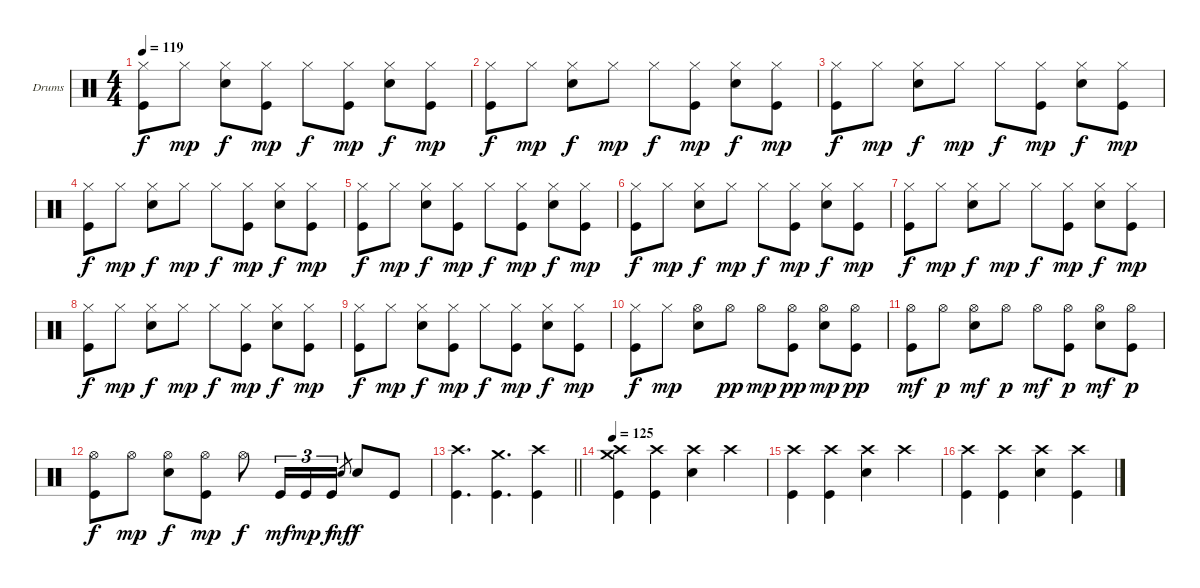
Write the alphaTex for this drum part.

\bracketExtendMode groupsimilarinstruments
\firstSystemTrackNameOrientation horizontal
\otherSystemsTrackNameOrientation horizontal
\track ("Drumkit" "Drums") {instrument percussion}
\staff {score}
\articulation defaults
\ts (4 4)
\tempo 119
\clef neutral
\ks c
("Hi-Hat (closed)" "Kick (hit)").8{dy f} "Hi-Hat (closed)".8{dy mp} ("Hi-Hat (closed)" "Snare (hit) 2").8{dy f} ("Hi-Hat (closed)" "Kick (hit)").8{dy mp} "Hi-Hat (closed)".8{dy f} ("Hi-Hat (closed)" "Kick (hit)").8{dy mp} ("Hi-Hat (closed)" "Snare (hit) 2").8{dy f} ("Hi-Hat (closed)" "Kick (hit)").8{dy mp} |
("Hi-Hat (closed)" "Kick (hit)").8{dy f} "Hi-Hat (closed)".8{dy mp} ("Hi-Hat (closed)" "Snare (hit) 2").8{dy f} "Hi-Hat (closed)".8{dy mp} "Hi-Hat (closed)".8{dy f} ("Hi-Hat (closed)" "Kick (hit)").8{dy mp} ("Hi-Hat (closed)" "Snare (hit) 2").8{dy f} ("Hi-Hat (closed)" "Kick (hit)").8{dy mp} |
("Hi-Hat (closed)" "Kick (hit)").8{dy f} "Hi-Hat (closed)".8{dy mp} ("Hi-Hat (closed)" "Snare (hit) 2").8{dy f} "Hi-Hat (closed)".8{dy mp} "Hi-Hat (closed)".8{dy f} ("Hi-Hat (closed)" "Kick (hit)").8{dy mp} ("Hi-Hat (closed)" "Snare (hit) 2").8{dy f} ("Hi-Hat (closed)" "Kick (hit)").8{dy mp} |
("Hi-Hat (closed)" "Kick (hit)").8{dy f} "Hi-Hat (closed)".8{dy mp} ("Hi-Hat (closed)" "Snare (hit) 2").8{dy f} "Hi-Hat (closed)".8{dy mp} "Hi-Hat (closed)".8{dy f} ("Hi-Hat (closed)" "Kick (hit)").8{dy mp} ("Hi-Hat (closed)" "Snare (hit) 2").8{dy f} ("Hi-Hat (closed)" "Kick (hit)").8{dy mp} |
("Hi-Hat (closed)" "Kick (hit)").8{dy f} "Hi-Hat (closed)".8{dy mp} ("Hi-Hat (closed)" "Snare (hit) 2").8{dy f} ("Hi-Hat (closed)" "Kick (hit)").8{dy mp} "Hi-Hat (closed)".8{dy f} ("Hi-Hat (closed)" "Kick (hit)").8{dy mp} ("Hi-Hat (closed)" "Snare (hit) 2").8{dy f} ("Hi-Hat (closed)" "Kick (hit)").8{dy mp} |
("Hi-Hat (closed)" "Kick (hit)").8{dy f} "Hi-Hat (closed)".8{dy mp} ("Hi-Hat (closed)" "Snare (hit) 2").8{dy f} "Hi-Hat (closed)".8{dy mp} "Hi-Hat (closed)".8{dy f} ("Hi-Hat (closed)" "Kick (hit)").8{dy mp} ("Hi-Hat (closed)" "Snare (hit) 2").8{dy f} ("Hi-Hat (closed)" "Kick (hit)").8{dy mp} |
("Hi-Hat (closed)" "Kick (hit)").8{dy f} "Hi-Hat (closed)".8{dy mp} ("Hi-Hat (closed)" "Snare (hit) 2").8{dy f} "Hi-Hat (closed)".8{dy mp} "Hi-Hat (closed)".8{dy f} ("Hi-Hat (closed)" "Kick (hit)").8{dy mp} ("Hi-Hat (closed)" "Snare (hit) 2").8{dy f} ("Hi-Hat (closed)" "Kick (hit)").8{dy mp} |
("Hi-Hat (closed)" "Kick (hit)").8{dy f} "Hi-Hat (closed)".8{dy mp} ("Hi-Hat (closed)" "Snare (hit) 2").8{dy f} "Hi-Hat (closed)".8{dy mp} "Hi-Hat (closed)".8{dy f} ("Hi-Hat (closed)" "Kick (hit)").8{dy mp} ("Hi-Hat (closed)" "Snare (hit) 2").8{dy f} ("Hi-Hat (closed)" "Kick (hit)").8{dy mp} |
("Hi-Hat (closed)" "Kick (hit)").8{dy f} "Hi-Hat (closed)".8{dy mp} ("Hi-Hat (closed)" "Snare (hit) 2").8{dy f} ("Hi-Hat (closed)" "Kick (hit)").8{dy mp} "Hi-Hat (closed)".8{dy f} ("Hi-Hat (closed)" "Kick (hit)").8{dy mp} ("Hi-Hat (closed)" "Snare (hit) 2").8{dy f} ("Hi-Hat (closed)" "Kick (hit)").8{dy mp} |
("Hi-Hat (closed)" "Kick (hit)").8{dy f} "Hi-Hat (closed)".8{dy mp} ("Hi-Hat (open)" "Snare (hit) 2").8 "Hi-Hat (open)".8{dy pp} "Hi-Hat (open)".8{dy mp} ("Hi-Hat (open)" "Kick (hit)").8{dy pp} ("Hi-Hat (open)" "Snare (hit) 2").8{dy mp} ("Hi-Hat (open)" "Kick (hit)").8{dy pp} |
("Hi-Hat (open)" "Kick (hit)").8{dy mf} "Hi-Hat (open)".8{dy p} ("Hi-Hat (open)" "Snare (hit) 2").8{dy mf} "Hi-Hat (open)".8{dy p} "Hi-Hat (open)".8{dy mf} ("Hi-Hat (open)" "Kick (hit)").8{dy p} ("Hi-Hat (open)" "Snare (hit) 2").8{dy mf} ("Hi-Hat (open)" "Kick (hit)").8{dy p} |
("Hi-Hat (open)" "Kick (hit)").8{dy f} "Hi-Hat (open)".8{dy mp} ("Hi-Hat (open)" "Snare (hit) 2").8{dy f} ("Hi-Hat (open)" "Kick (hit)").8{dy mp} "Hi-Hat (open)".8{dy f} "Kick (hit)".16{tu (3 2) dy mf} "Kick (hit)".16{tu (3 2) dy mp} "Kick (hit)".16{tu (3 2) dy f} "Snare (hit) 2".8{gr dy mf} "Snare (hit) 2".8{dy f} "Kick (hit)".8 |
\barLineRight lightlight
("Crash high (hit)" "Kick (hit)").4{d} ("Crash medium (hit)" "Kick (hit)").4{d} ("Crash high (hit)" "Kick (hit)").4 |
\tempo 125
("Crash high (hit)" "Crash medium (hit)" "Kick (hit)").4 ("Crash high (hit)" "Kick (hit)").4 ("Crash high (hit)" "Snare (hit) 2").4 "Crash high (hit)".4 |
("Crash high (hit)" "Kick (hit)").4 ("Crash high (hit)" "Kick (hit)").4 ("Crash high (hit)" "Snare (hit) 2").4 "Crash high (hit)".4 |
("Crash high (hit)" "Kick (hit)").4 ("Crash high (hit)" "Kick (hit)").4 ("Crash high (hit)" "Snare (hit) 2").4 ("Crash high (hit)" "Kick (hit)").4
